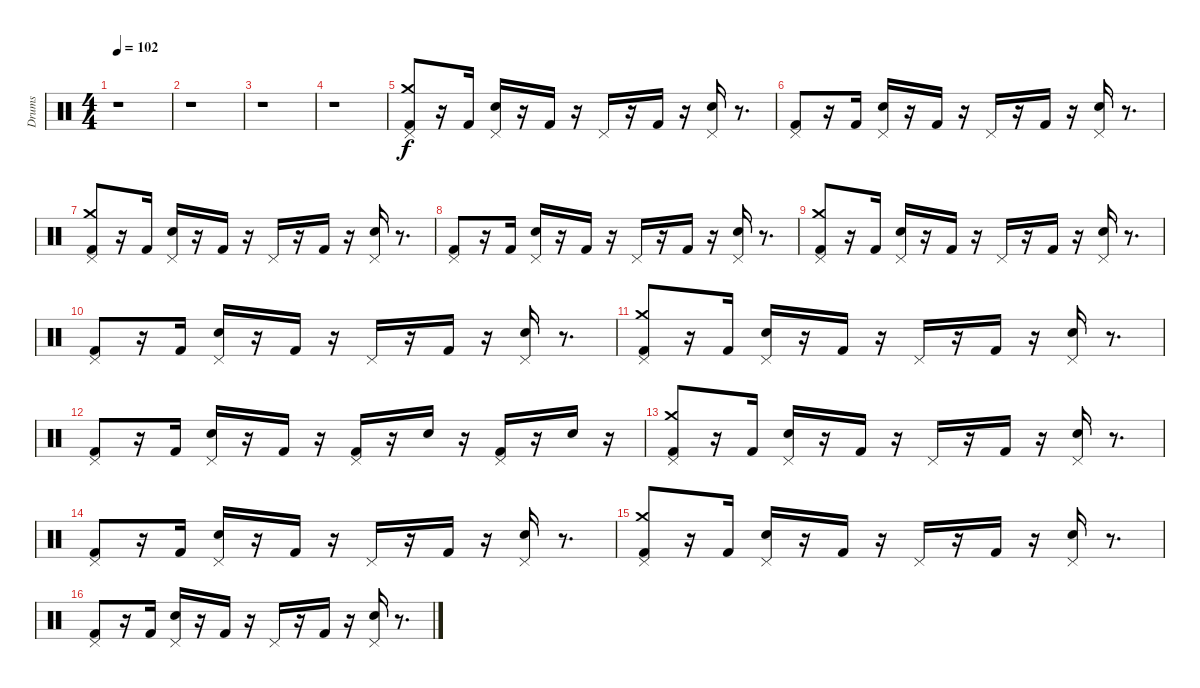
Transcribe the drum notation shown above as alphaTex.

\track ("Drums" "Drums") {instrument percussion}
\staff {score}
\articulation defaults
\ts (4 4)
\tempo 102
\clef neutral
\ks c
r.1{dy f} |
r.1 |
r.1 |
r.1 |
("Pedal Hi-Hat (hit)" "Crash medium (hit)" "Kick (hit) 2").8 r.16 "Kick (hit) 2".16 ("Pedal Hi-Hat (hit)" "Snare (hit) 2").16 r.16 "Kick (hit) 2".16 r.16 "Pedal Hi-Hat (hit)".16 r.16 "Kick (hit) 2".16 r.16 ("Pedal Hi-Hat (hit)" "Snare (hit) 2").16 r.8{d} |
("Pedal Hi-Hat (hit)" "Kick (hit) 2").8 r.16 "Kick (hit) 2".16 ("Pedal Hi-Hat (hit)" "Snare (hit) 2").16 r.16 "Kick (hit) 2".16 r.16 "Pedal Hi-Hat (hit)".16 r.16 "Kick (hit) 2".16 r.16 ("Pedal Hi-Hat (hit)" "Snare (hit) 2").16 r.8{d} |
("Crash medium (hit)" "Pedal Hi-Hat (hit)" "Kick (hit) 2").8 r.16 "Kick (hit) 2".16 ("Pedal Hi-Hat (hit)" "Snare (hit) 2").16 r.16 "Kick (hit) 2".16 r.16 "Pedal Hi-Hat (hit)".16 r.16 "Kick (hit) 2".16 r.16 ("Pedal Hi-Hat (hit)" "Snare (hit) 2").16 r.8{d} |
("Pedal Hi-Hat (hit)" "Kick (hit) 2").8 r.16 "Kick (hit) 2".16 ("Pedal Hi-Hat (hit)" "Snare (hit) 2").16 r.16 "Kick (hit) 2".16 r.16 "Pedal Hi-Hat (hit)".16 r.16 "Kick (hit) 2".16 r.16 ("Pedal Hi-Hat (hit)" "Snare (hit) 2").16 r.8{d} |
("Crash medium (hit)" "Pedal Hi-Hat (hit)" "Kick (hit) 2").8 r.16 "Kick (hit) 2".16 ("Pedal Hi-Hat (hit)" "Snare (hit) 2").16 r.16 "Kick (hit) 2".16 r.16 "Pedal Hi-Hat (hit)".16 r.16 "Kick (hit) 2".16 r.16 ("Pedal Hi-Hat (hit)" "Snare (hit) 2").16 r.8{d} |
("Pedal Hi-Hat (hit)" "Kick (hit) 2").8 r.16 "Kick (hit) 2".16 ("Pedal Hi-Hat (hit)" "Snare (hit) 2").16 r.16 "Kick (hit) 2".16 r.16 "Pedal Hi-Hat (hit)".16 r.16 "Kick (hit) 2".16 r.16 ("Pedal Hi-Hat (hit)" "Snare (hit) 2").16 r.8{d} |
("Crash medium (hit)" "Pedal Hi-Hat (hit)" "Kick (hit) 2").8 r.16 "Kick (hit) 2".16 ("Pedal Hi-Hat (hit)" "Snare (hit) 2").16 r.16 "Kick (hit) 2".16 r.16 "Pedal Hi-Hat (hit)".16 r.16 "Kick (hit) 2".16 r.16 ("Pedal Hi-Hat (hit)" "Snare (hit) 2").16 r.8{d} |
("Pedal Hi-Hat (hit)" "Kick (hit) 2").8 r.16 "Kick (hit) 2".16 ("Pedal Hi-Hat (hit)" "Snare (hit) 2").16 r.16 "Kick (hit) 2".16 r.16 ("Kick (hit) 2" "Pedal Hi-Hat (hit)").16 r.16 "Snare (hit) 2".16 r.16 ("Kick (hit) 2" "Pedal Hi-Hat (hit)").16 r.16 "Snare (hit) 2".16 r.16 |
("Crash medium (hit)" "Pedal Hi-Hat (hit)" "Kick (hit) 2").8 r.16 "Kick (hit) 2".16 ("Pedal Hi-Hat (hit)" "Snare (hit) 2").16 r.16 "Kick (hit) 2".16 r.16 "Pedal Hi-Hat (hit)".16 r.16 "Kick (hit) 2".16 r.16 ("Pedal Hi-Hat (hit)" "Snare (hit) 2").16 r.8{d} |
("Pedal Hi-Hat (hit)" "Kick (hit) 2").8 r.16 "Kick (hit) 2".16 ("Pedal Hi-Hat (hit)" "Snare (hit) 2").16 r.16 "Kick (hit) 2".16 r.16 "Pedal Hi-Hat (hit)".16 r.16 "Kick (hit) 2".16 r.16 ("Pedal Hi-Hat (hit)" "Snare (hit) 2").16 r.8{d} |
("Crash medium (hit)" "Pedal Hi-Hat (hit)" "Kick (hit) 2").8 r.16 "Kick (hit) 2".16 ("Pedal Hi-Hat (hit)" "Snare (hit) 2").16 r.16 "Kick (hit) 2".16 r.16 "Pedal Hi-Hat (hit)".16 r.16 "Kick (hit) 2".16 r.16 ("Pedal Hi-Hat (hit)" "Snare (hit) 2").16 r.8{d} |
("Pedal Hi-Hat (hit)" "Kick (hit) 2").8 r.16 "Kick (hit) 2".16 ("Pedal Hi-Hat (hit)" "Snare (hit) 2").16 r.16 "Kick (hit) 2".16 r.16 "Pedal Hi-Hat (hit)".16 r.16 "Kick (hit) 2".16 r.16 ("Pedal Hi-Hat (hit)" "Snare (hit) 2").16 r.8{d}
